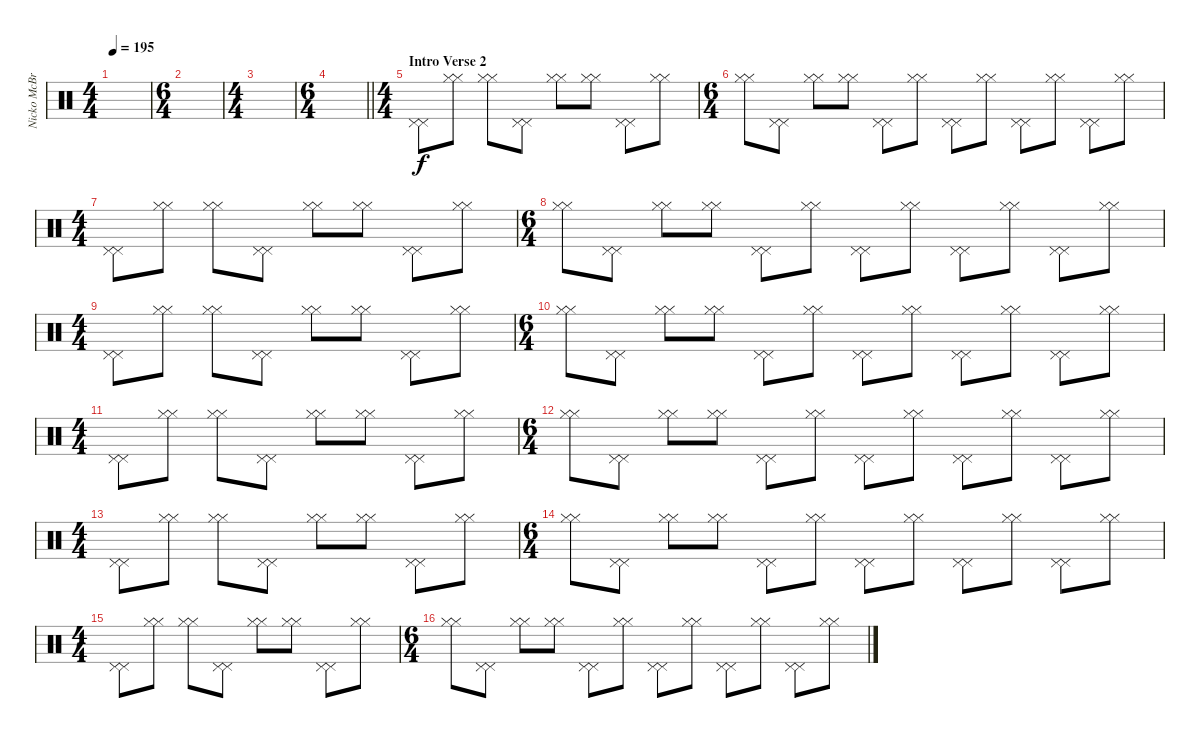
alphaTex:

\track ("Nicko McBrain" "Nicko McBr") {instrument percussion}
\staff {score}
\articulation defaults
\ts (4 4)
\tempo 195
\clef neutral
\ks c
|
\ts (6 4)
|
\ts (4 4)
|
\ts (6 4)
\barLineRight lightlight
|
\ts (4 4)
\section ("" "Intro Verse 2")
("Pedal Hi-Hat (hit)" "Pedal Hi-Hat (hit)").8 ("Hi-Hat (closed)" "Hi-Hat (closed)").8 ("Hi-Hat (closed)" "Hi-Hat (closed)").8 ("Pedal Hi-Hat (hit)" "Pedal Hi-Hat (hit)").8 ("Hi-Hat (closed)" "Hi-Hat (closed)").8 ("Hi-Hat (closed)" "Hi-Hat (closed)").8 ("Pedal Hi-Hat (hit)" "Pedal Hi-Hat (hit)").8 ("Hi-Hat (closed)" "Hi-Hat (closed)").8 |
\ts (6 4)
("Hi-Hat (closed)" "Hi-Hat (closed)").8 ("Pedal Hi-Hat (hit)" "Pedal Hi-Hat (hit)").8 ("Hi-Hat (closed)" "Hi-Hat (closed)").8 ("Hi-Hat (closed)" "Hi-Hat (closed)").8 ("Pedal Hi-Hat (hit)" "Pedal Hi-Hat (hit)").8 ("Hi-Hat (closed)" "Hi-Hat (closed)").8 ("Pedal Hi-Hat (hit)" "Pedal Hi-Hat (hit)").8 ("Hi-Hat (closed)" "Hi-Hat (closed)").8 ("Pedal Hi-Hat (hit)" "Pedal Hi-Hat (hit)").8 ("Hi-Hat (closed)" "Hi-Hat (closed)").8 ("Pedal Hi-Hat (hit)" "Pedal Hi-Hat (hit)").8 ("Hi-Hat (closed)" "Hi-Hat (closed)").8 |
\ts (4 4)
("Pedal Hi-Hat (hit)" "Pedal Hi-Hat (hit)").8 ("Hi-Hat (closed)" "Hi-Hat (closed)").8 ("Hi-Hat (closed)" "Hi-Hat (closed)").8 ("Pedal Hi-Hat (hit)" "Pedal Hi-Hat (hit)").8 ("Hi-Hat (closed)" "Hi-Hat (closed)").8 ("Hi-Hat (closed)" "Hi-Hat (closed)").8 ("Pedal Hi-Hat (hit)" "Pedal Hi-Hat (hit)").8 ("Hi-Hat (closed)" "Hi-Hat (closed)").8 |
\ts (6 4)
("Hi-Hat (closed)" "Hi-Hat (closed)").8 ("Pedal Hi-Hat (hit)" "Pedal Hi-Hat (hit)").8 ("Hi-Hat (closed)" "Hi-Hat (closed)").8 ("Hi-Hat (closed)" "Hi-Hat (closed)").8 ("Pedal Hi-Hat (hit)" "Pedal Hi-Hat (hit)").8 ("Hi-Hat (closed)" "Hi-Hat (closed)").8 ("Pedal Hi-Hat (hit)" "Pedal Hi-Hat (hit)").8 ("Hi-Hat (closed)" "Hi-Hat (closed)").8 ("Pedal Hi-Hat (hit)" "Pedal Hi-Hat (hit)").8 ("Hi-Hat (closed)" "Hi-Hat (closed)").8 ("Pedal Hi-Hat (hit)" "Pedal Hi-Hat (hit)").8 ("Hi-Hat (closed)" "Hi-Hat (closed)").8 |
\ts (4 4)
("Pedal Hi-Hat (hit)" "Pedal Hi-Hat (hit)").8 ("Hi-Hat (closed)" "Hi-Hat (closed)").8 ("Hi-Hat (closed)" "Hi-Hat (closed)").8 ("Pedal Hi-Hat (hit)" "Pedal Hi-Hat (hit)").8 ("Hi-Hat (closed)" "Hi-Hat (closed)").8 ("Hi-Hat (closed)" "Hi-Hat (closed)").8 ("Pedal Hi-Hat (hit)" "Pedal Hi-Hat (hit)").8 ("Hi-Hat (closed)" "Hi-Hat (closed)").8 |
\ts (6 4)
("Hi-Hat (closed)" "Hi-Hat (closed)").8 ("Pedal Hi-Hat (hit)" "Pedal Hi-Hat (hit)").8 ("Hi-Hat (closed)" "Hi-Hat (closed)").8 ("Hi-Hat (closed)" "Hi-Hat (closed)").8 ("Pedal Hi-Hat (hit)" "Pedal Hi-Hat (hit)").8 ("Hi-Hat (closed)" "Hi-Hat (closed)").8 ("Pedal Hi-Hat (hit)" "Pedal Hi-Hat (hit)").8 ("Hi-Hat (closed)" "Hi-Hat (closed)").8 ("Pedal Hi-Hat (hit)" "Pedal Hi-Hat (hit)").8 ("Hi-Hat (closed)" "Hi-Hat (closed)").8 ("Pedal Hi-Hat (hit)" "Pedal Hi-Hat (hit)").8 ("Hi-Hat (closed)" "Hi-Hat (closed)").8 |
\ts (4 4)
("Pedal Hi-Hat (hit)" "Pedal Hi-Hat (hit)").8 ("Hi-Hat (closed)" "Hi-Hat (closed)").8 ("Hi-Hat (closed)" "Hi-Hat (closed)").8 ("Pedal Hi-Hat (hit)" "Pedal Hi-Hat (hit)").8 ("Hi-Hat (closed)" "Hi-Hat (closed)").8 ("Hi-Hat (closed)" "Hi-Hat (closed)").8 ("Pedal Hi-Hat (hit)" "Pedal Hi-Hat (hit)").8 ("Hi-Hat (closed)" "Hi-Hat (closed)").8 |
\ts (6 4)
("Hi-Hat (closed)" "Hi-Hat (closed)").8 ("Pedal Hi-Hat (hit)" "Pedal Hi-Hat (hit)").8 ("Hi-Hat (closed)" "Hi-Hat (closed)").8 ("Hi-Hat (closed)" "Hi-Hat (closed)").8 ("Pedal Hi-Hat (hit)" "Pedal Hi-Hat (hit)").8 ("Hi-Hat (closed)" "Hi-Hat (closed)").8 ("Pedal Hi-Hat (hit)" "Pedal Hi-Hat (hit)").8 ("Hi-Hat (closed)" "Hi-Hat (closed)").8 ("Pedal Hi-Hat (hit)" "Pedal Hi-Hat (hit)").8 ("Hi-Hat (closed)" "Hi-Hat (closed)").8 ("Pedal Hi-Hat (hit)" "Pedal Hi-Hat (hit)").8 ("Hi-Hat (closed)" "Hi-Hat (closed)").8 |
\ts (4 4)
("Pedal Hi-Hat (hit)" "Pedal Hi-Hat (hit)").8 ("Hi-Hat (closed)" "Hi-Hat (closed)").8 ("Hi-Hat (closed)" "Hi-Hat (closed)").8 ("Pedal Hi-Hat (hit)" "Pedal Hi-Hat (hit)").8 ("Hi-Hat (closed)" "Hi-Hat (closed)").8 ("Hi-Hat (closed)" "Hi-Hat (closed)").8 ("Pedal Hi-Hat (hit)" "Pedal Hi-Hat (hit)").8 ("Hi-Hat (closed)" "Hi-Hat (closed)").8 |
\ts (6 4)
("Hi-Hat (closed)" "Hi-Hat (closed)").8 ("Pedal Hi-Hat (hit)" "Pedal Hi-Hat (hit)").8 ("Hi-Hat (closed)" "Hi-Hat (closed)").8 ("Hi-Hat (closed)" "Hi-Hat (closed)").8 ("Pedal Hi-Hat (hit)" "Pedal Hi-Hat (hit)").8 ("Hi-Hat (closed)" "Hi-Hat (closed)").8 ("Pedal Hi-Hat (hit)" "Pedal Hi-Hat (hit)").8 ("Hi-Hat (closed)" "Hi-Hat (closed)").8 ("Pedal Hi-Hat (hit)" "Pedal Hi-Hat (hit)").8 ("Hi-Hat (closed)" "Hi-Hat (closed)").8 ("Pedal Hi-Hat (hit)" "Pedal Hi-Hat (hit)").8 ("Hi-Hat (closed)" "Hi-Hat (closed)").8 |
\ts (4 4)
("Pedal Hi-Hat (hit)" "Pedal Hi-Hat (hit)").8 ("Hi-Hat (closed)" "Hi-Hat (closed)").8 ("Hi-Hat (closed)" "Hi-Hat (closed)").8 ("Pedal Hi-Hat (hit)" "Pedal Hi-Hat (hit)").8 ("Hi-Hat (closed)" "Hi-Hat (closed)").8 ("Hi-Hat (closed)" "Hi-Hat (closed)").8 ("Pedal Hi-Hat (hit)" "Pedal Hi-Hat (hit)").8 ("Hi-Hat (closed)" "Hi-Hat (closed)").8 |
\ts (6 4)
("Hi-Hat (closed)" "Hi-Hat (closed)").8 ("Pedal Hi-Hat (hit)" "Pedal Hi-Hat (hit)").8 ("Hi-Hat (closed)" "Hi-Hat (closed)").8 ("Hi-Hat (closed)" "Hi-Hat (closed)").8 ("Pedal Hi-Hat (hit)" "Pedal Hi-Hat (hit)").8 ("Hi-Hat (closed)" "Hi-Hat (closed)").8 ("Pedal Hi-Hat (hit)" "Pedal Hi-Hat (hit)").8 ("Hi-Hat (closed)" "Hi-Hat (closed)").8 ("Pedal Hi-Hat (hit)" "Pedal Hi-Hat (hit)").8 ("Hi-Hat (closed)" "Hi-Hat (closed)").8 ("Pedal Hi-Hat (hit)" "Pedal Hi-Hat (hit)").8 ("Hi-Hat (closed)" "Hi-Hat (closed)").8
